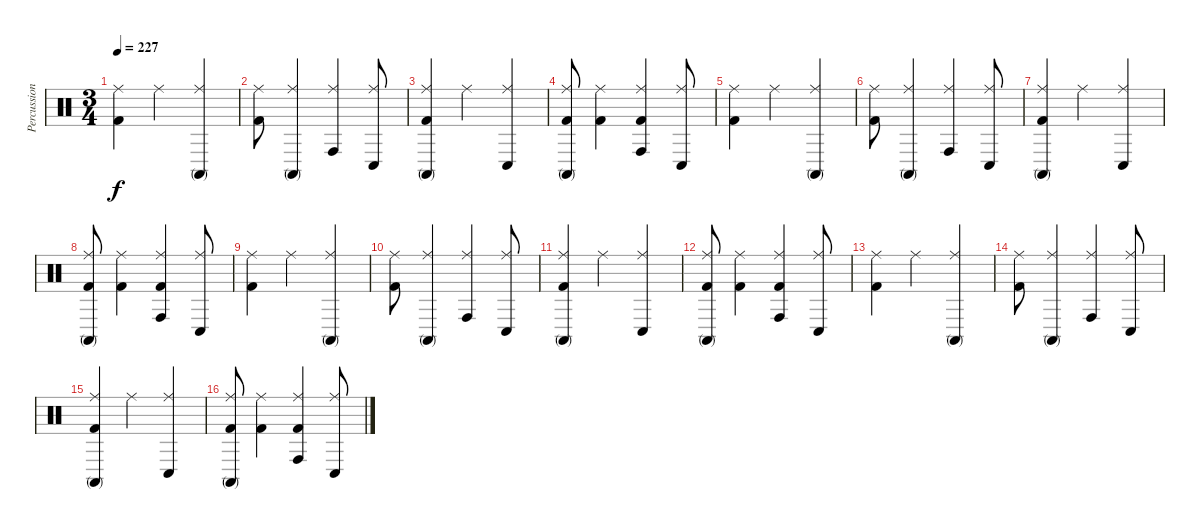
\track ("Percussion" "Percussion") {instrument percussion}
\staff {score}
\articulation defaults
\ts (3 4)
\tempo 227
\clef neutral
\ks c
("Ride (middle)" "Kick (hit) 2").4{dy f} "Ride (middle)".4 ("Ride (middle)" "Conga high (mute)").4 |
("Ride (middle)" "Kick (hit) 2").8 ("Ride (middle)" "Conga high (mute)").4 ("Ride (middle)" "Conga high (hit)").4 ("Ride (middle)" "Conga low (hit)").8 |
("Ride (middle)" "Conga high (mute)" "Kick (hit) 2").4 "Ride (middle)".4 ("Ride (middle)" "Conga low (hit)").4 |
("Ride (middle)" "Conga high (mute)" "Kick (hit) 2").8 ("Ride (middle)" "Kick (hit) 2").4 ("Ride (middle)" "Conga high (hit)" "Kick (hit) 2").4 ("Ride (middle)" "Conga low (hit)").8 |
("Ride (middle)" "Kick (hit) 2").4 "Ride (middle)".4 ("Ride (middle)" "Conga high (mute)").4 |
("Ride (middle)" "Kick (hit) 2").8 ("Ride (middle)" "Conga high (mute)").4 ("Ride (middle)" "Conga high (hit)").4 ("Ride (middle)" "Conga low (hit)").8 |
("Ride (middle)" "Conga high (mute)" "Kick (hit) 2").4 "Ride (middle)".4 ("Ride (middle)" "Conga low (hit)").4 |
("Ride (middle)" "Conga high (mute)" "Kick (hit) 2").8 ("Ride (middle)" "Kick (hit) 2").4 ("Ride (middle)" "Conga high (hit)" "Kick (hit) 2").4 ("Ride (middle)" "Conga low (hit)").8 |
("Ride (middle)" "Kick (hit) 2").4 "Ride (middle)".4 ("Ride (middle)" "Conga high (mute)").4 |
("Ride (middle)" "Kick (hit) 2").8 ("Ride (middle)" "Conga high (mute)").4 ("Ride (middle)" "Conga high (hit)").4 ("Ride (middle)" "Conga low (hit)").8 |
("Ride (middle)" "Conga high (mute)" "Kick (hit) 2").4 "Ride (middle)".4 ("Ride (middle)" "Conga low (hit)").4 |
("Ride (middle)" "Conga high (mute)" "Kick (hit) 2").8 ("Ride (middle)" "Kick (hit) 2").4 ("Ride (middle)" "Conga high (hit)" "Kick (hit) 2").4 ("Ride (middle)" "Conga low (hit)").8 |
("Ride (middle)" "Kick (hit) 2").4 "Ride (middle)".4 ("Ride (middle)" "Conga high (mute)").4 |
("Ride (middle)" "Kick (hit) 2").8 ("Ride (middle)" "Conga high (mute)").4 ("Ride (middle)" "Conga high (hit)").4 ("Ride (middle)" "Conga low (hit)").8 |
("Ride (middle)" "Conga high (mute)" "Kick (hit) 2").4 "Ride (middle)".4 ("Ride (middle)" "Conga low (hit)").4 |
("Ride (middle)" "Conga high (mute)" "Kick (hit) 2").8 ("Ride (middle)" "Kick (hit) 2").4 ("Ride (middle)" "Conga high (hit)" "Kick (hit) 2").4 ("Ride (middle)" "Conga low (hit)").8
